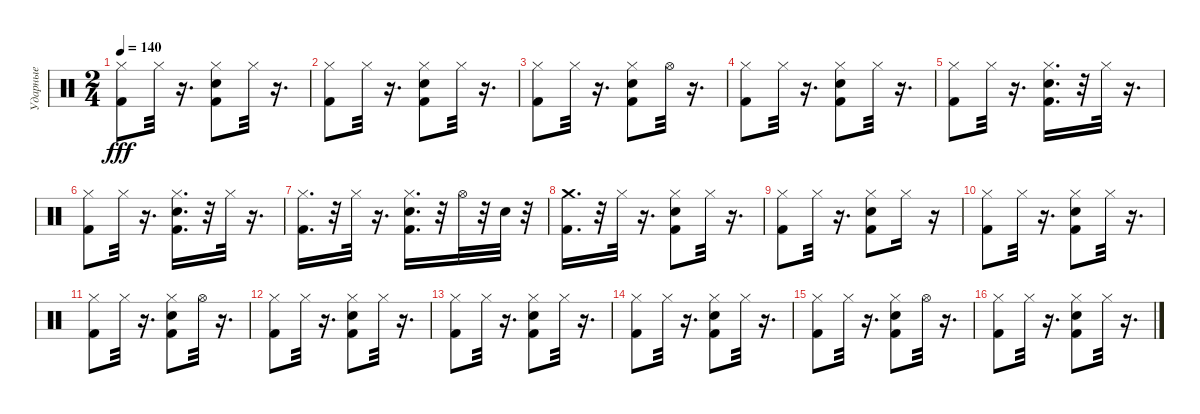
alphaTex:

\track ("Ударные" "Ударные") {instrument percussion}
\staff {score}
\articulation defaults
\ts (2 4)
\tempo 140
\clef neutral
\ks c
("Kick (hit) 2" "Hi-Hat (closed)").8{dy fff} "Hi-Hat (closed)".32 r.16{d} ("Snare (hit) 2" "Kick (hit) 2" "Hi-Hat (closed)").8 "Hi-Hat (closed)".32 r.16{d} |
("Kick (hit) 2" "Hi-Hat (closed)").8 "Hi-Hat (closed)".32 r.16{d} ("Snare (hit) 2" "Kick (hit) 2" "Hi-Hat (closed)").8 "Hi-Hat (closed)".32 r.16{d} |
("Kick (hit) 2" "Hi-Hat (closed)").8 "Hi-Hat (closed)".32 r.16{d} ("Snare (hit) 2" "Kick (hit) 2" "Hi-Hat (closed)").8 "Hi-Hat (open)".32 r.16{d} |
("Kick (hit) 2" "Hi-Hat (closed)").8 "Hi-Hat (closed)".32 r.16{d} ("Hi-Hat (closed)" "Snare (hit) 2" "Kick (hit) 2").8 "Hi-Hat (closed)".32 r.16{d} |
("Kick (hit) 2" "Hi-Hat (closed)").8 "Hi-Hat (closed)".32 r.16{d} ("Snare (hit) 2" "Kick (hit) 2" "Hi-Hat (closed)").16{d} r.32 "Hi-Hat (closed)".32 r.16{d} |
("Kick (hit) 2" "Hi-Hat (closed)").8 "Hi-Hat (closed)".32 r.16{d} ("Snare (hit) 2" "Kick (hit) 2" "Hi-Hat (closed)").16{d} r.32 "Hi-Hat (closed)".32 r.16{d} |
("Kick (hit) 2" "Hi-Hat (closed)").16{d} r.32 "Hi-Hat (closed)".32 r.16{d} ("Snare (hit) 2" "Kick (hit) 2" "Hi-Hat (closed)").16{d} r.32 "Hi-Hat (open)".32 r.32 "Snare (hit) 2".32 r.32 |
("Kick (hit) 2" "Crash medium (hit)").16{d} r.32 "Hi-Hat (closed)".32 r.16{d} ("Kick (hit) 2" "Snare (hit) 2" "Hi-Hat (closed)").8 "Hi-Hat (closed)".32 r.16{d} |
("Kick (hit) 2" "Hi-Hat (closed)").8 "Hi-Hat (closed)".32 r.16{d} ("Kick (hit) 2" "Hi-Hat (closed)" "Snare (hit) 2").8 "Hi-Hat (closed)".16 r.16 |
("Kick (hit) 2" "Hi-Hat (closed)").8 "Hi-Hat (closed)".32 r.16{d} ("Snare (hit) 2" "Kick (hit) 2" "Hi-Hat (closed)").8 "Hi-Hat (closed)".32 r.16{d} |
("Kick (hit) 2" "Hi-Hat (closed)").8 "Hi-Hat (closed)".32 r.16{d} ("Snare (hit) 2" "Hi-Hat (closed)" "Kick (hit) 2").8 "Hi-Hat (open)".32 r.16{d} |
("Kick (hit) 2" "Hi-Hat (closed)").8 "Hi-Hat (closed)".32 r.16{d} ("Hi-Hat (closed)" "Snare (hit) 2" "Kick (hit) 2").8 "Hi-Hat (closed)".32 r.16{d} |
("Kick (hit) 2" "Hi-Hat (closed)").8 "Hi-Hat (closed)".32 r.16{d} ("Snare (hit) 2" "Kick (hit) 2" "Hi-Hat (closed)").8 "Hi-Hat (closed)".32 r.16{d} |
("Kick (hit) 2" "Hi-Hat (closed)").8 "Hi-Hat (closed)".32 r.16{d} ("Hi-Hat (closed)" "Snare (hit) 2" "Kick (hit) 2").8 "Hi-Hat (closed)".32 r.16{d} |
("Kick (hit) 2" "Hi-Hat (closed)").8 "Hi-Hat (closed)".32 r.16{d} ("Kick (hit) 2" "Snare (hit) 2" "Hi-Hat (closed)").8 "Hi-Hat (open)".32 r.16{d} |
("Kick (hit) 2" "Hi-Hat (closed)").8 "Hi-Hat (closed)".32 r.16{d} ("Kick (hit) 2" "Hi-Hat (closed)" "Snare (hit) 2").8 "Hi-Hat (closed)".32 r.16{d}
